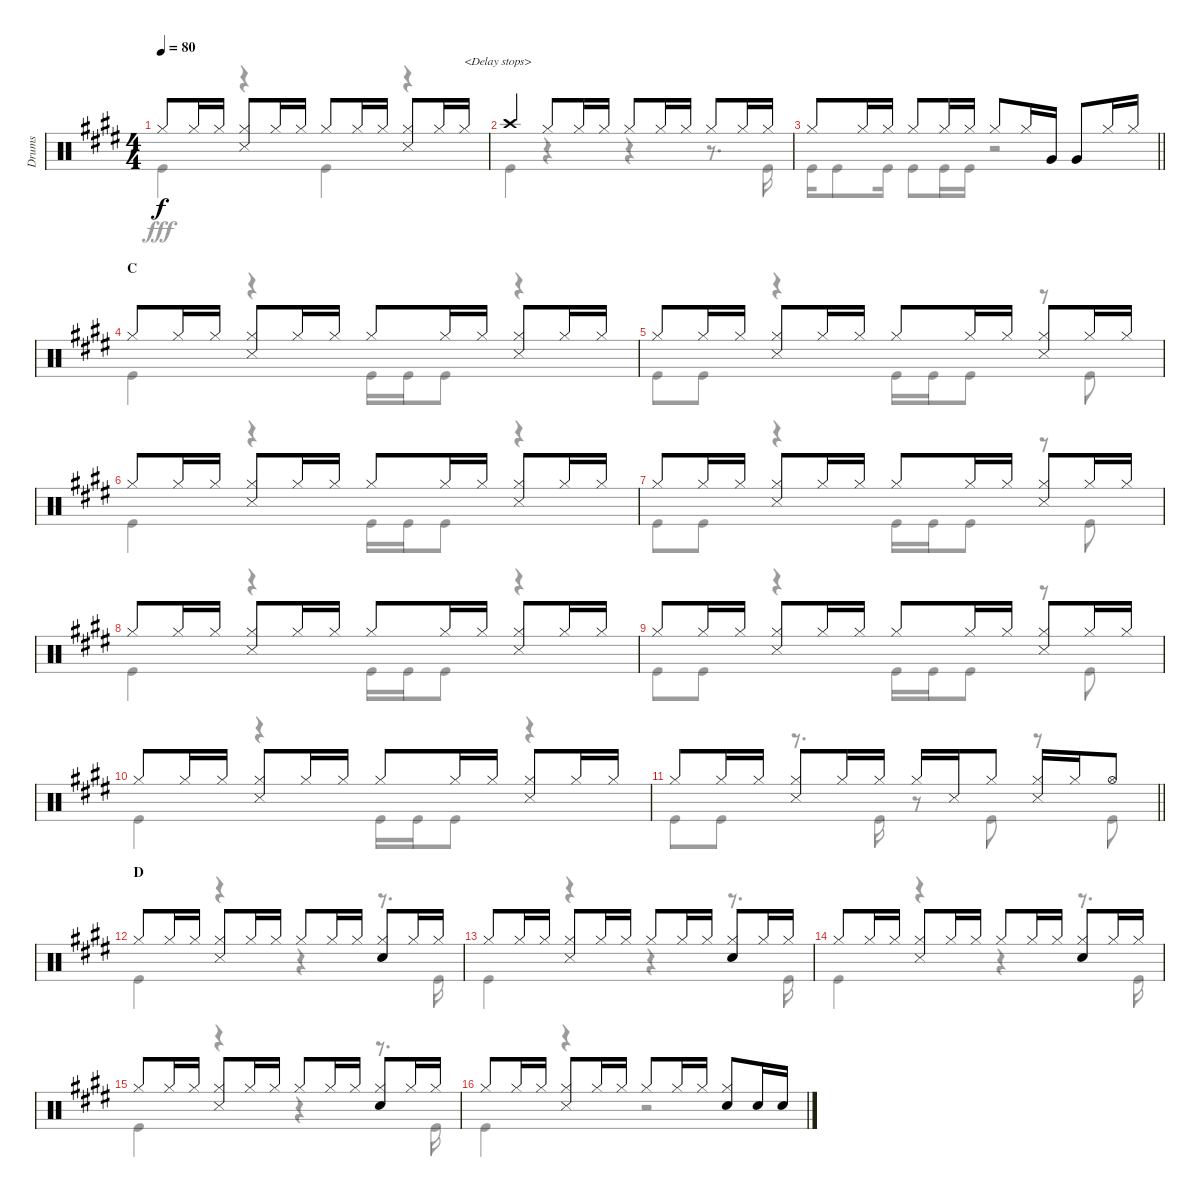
\track ("Drums" "Drums") {instrument percussion}
\staff {score}
\articulation defaults
\voice
\ts (4 4)
\tempo 80
\clef neutral
\ks e "Hi-Hat (closed)".8{dy f} "Hi-Hat (closed)".16 "Hi-Hat (closed)".16
("Hi-Hat (closed)" "Snare (side stick) 3").8 "Hi-Hat (closed)".16 "Hi-Hat (closed)".16 "Hi-Hat (closed)".8 "Hi-Hat (closed)".16 "Hi-Hat (closed)".16 ("Hi-Hat (closed)" "Snare (side stick) 3").8 "Hi-Hat (closed)".16 "Hi-Hat (closed)".16{txt "<Delay stops>"} |
"Crash high (hit)".4 "Hi-Hat (closed)".8 "Hi-Hat (closed)".16 "Hi-Hat (closed)".16 "Hi-Hat (closed)".8 "Hi-Hat (closed)".16 "Hi-Hat (closed)".16 "Hi-Hat (closed)".8 "Hi-Hat (closed)".16 "Hi-Hat (closed)".16 |
\barLineRight lightlight "Hi-Hat (closed)".8 "Hi-Hat (closed)".16 "Hi-Hat (closed)".16 "Hi-Hat (closed)".8 "Hi-Hat (closed)".16 "Hi-Hat (closed)".16 "Hi-Hat (closed)".8 "Hi-Hat (closed)".16 "Very Low Tom (hit)".16 "Very Low Tom (hit)".8 "Hi-Hat (closed)".16 "Hi-Hat (closed)".16
|
\section ("" "C")
"Hi-Hat (closed)".8 "Hi-Hat (closed)".16 "Hi-Hat (closed)".16 ("Hi-Hat (closed)" "Snare (side stick) 3").8 "Hi-Hat (closed)".16 "Hi-Hat (closed)".16 "Hi-Hat (closed)".8 "Hi-Hat (closed)".16 "Hi-Hat (closed)".16 ("Hi-Hat (closed)" "Snare (side stick) 3").8 "Hi-Hat (closed)".16 "Hi-Hat (closed)".16 |
"Hi-Hat (closed)".8 "Hi-Hat (closed)".16 "Hi-Hat (closed)".16 ("Hi-Hat (closed)" "Snare (side stick) 3").8 "Hi-Hat (closed)".16 "Hi-Hat (closed)".16 "Hi-Hat (closed)".8 "Hi-Hat (closed)".16 "Hi-Hat (closed)".16 ("Hi-Hat (closed)" "Snare (side stick) 3").8 "Hi-Hat (closed)".16 "Hi-Hat (closed)".16 |
"Hi-Hat (closed)".8 "Hi-Hat (closed)".16 "Hi-Hat (closed)".16 ("Hi-Hat (closed)" "Snare (side stick) 3").8 "Hi-Hat (closed)".16 "Hi-Hat (closed)".16 "Hi-Hat (closed)".8 "Hi-Hat (closed)".16 "Hi-Hat (closed)".16 ("Hi-Hat (closed)" "Snare (side stick) 3").8 "Hi-Hat (closed)".16 "Hi-Hat (closed)".16 |
"Hi-Hat (closed)".8 "Hi-Hat (closed)".16 "Hi-Hat (closed)".16 ("Hi-Hat (closed)" "Snare (side stick) 3").8 "Hi-Hat (closed)".16 "Hi-Hat (closed)".16 "Hi-Hat (closed)".8 "Hi-Hat (closed)".16 "Hi-Hat (closed)".16 ("Hi-Hat (closed)" "Snare (side stick) 3").8 "Hi-Hat (closed)".16 "Hi-Hat (closed)".16 |
"Hi-Hat (closed)".8 "Hi-Hat (closed)".16 "Hi-Hat (closed)".16 ("Hi-Hat (closed)" "Snare (side stick) 3").8 "Hi-Hat (closed)".16 "Hi-Hat (closed)".16 "Hi-Hat (closed)".8 "Hi-Hat (closed)".16 "Hi-Hat (closed)".16 ("Hi-Hat (closed)" "Snare (side stick) 3").8 "Hi-Hat (closed)".16 "Hi-Hat (closed)".16 |
"Hi-Hat (closed)".8 "Hi-Hat (closed)".16 "Hi-Hat (closed)".16 ("Hi-Hat (closed)" "Snare (side stick) 3").8 "Hi-Hat (closed)".16 "Hi-Hat (closed)".16 "Hi-Hat (closed)".8 "Hi-Hat (closed)".16 "Hi-Hat (closed)".16 ("Hi-Hat (closed)" "Snare (side stick) 3").8 "Hi-Hat (closed)".16 "Hi-Hat (closed)".16 |
"Hi-Hat (closed)".8 "Hi-Hat (closed)".16 "Hi-Hat (closed)".16 ("Hi-Hat (closed)" "Snare (side stick) 3").8 "Hi-Hat (closed)".16 "Hi-Hat (closed)".16 "Hi-Hat (closed)".8 "Hi-Hat (closed)".16 "Hi-Hat (closed)".16 ("Hi-Hat (closed)" "Snare (side stick) 3").8 "Hi-Hat (closed)".16 "Hi-Hat (closed)".16 |
\barLineRight lightlight "Hi-Hat (closed)".8 "Hi-Hat (closed)".16 "Hi-Hat (closed)".16
("Hi-Hat (closed)" "Snare (side stick) 3").8 "Hi-Hat (closed)".16 "Hi-Hat (closed)".16 "Hi-Hat (closed)".16 "Snare (side stick) 3".16 "Hi-Hat (closed)".8 ("Hi-Hat (closed)" "Snare (side stick) 3").16 "Hi-Hat (closed)".16 "Hi-Hat (open)".8 |
\section ("" "D")
"Hi-Hat (closed)".8 "Hi-Hat (closed)".16 "Hi-Hat (closed)".16 ("Hi-Hat (closed)" "Snare (side stick) 3").8 "Hi-Hat (closed)".16 "Hi-Hat (closed)".16 "Hi-Hat (closed)".8 "Hi-Hat (closed)".16 "Hi-Hat (closed)".16 ("Hi-Hat (closed)" "Snare (hit) 2").8 "Hi-Hat (closed)".16 "Hi-Hat (closed)".16 |
"Hi-Hat (closed)".8 "Hi-Hat (closed)".16 "Hi-Hat (closed)".16 ("Hi-Hat (closed)" "Snare (side stick) 3").8 "Hi-Hat (closed)".16 "Hi-Hat (closed)".16 "Hi-Hat (closed)".8 "Hi-Hat (closed)".16 "Hi-Hat (closed)".16 ("Hi-Hat (closed)" "Snare (hit) 2").8 "Hi-Hat (closed)".16 "Hi-Hat (closed)".16 |
"Hi-Hat (closed)".8 "Hi-Hat (closed)".16 "Hi-Hat (closed)".16 ("Hi-Hat (closed)" "Snare (side stick) 3").8 "Hi-Hat (closed)".16 "Hi-Hat (closed)".16 "Hi-Hat (closed)".8 "Hi-Hat (closed)".16 "Hi-Hat (closed)".16 ("Hi-Hat (closed)" "Snare (hit) 2").8 "Hi-Hat (closed)".16 "Hi-Hat (closed)".16 |
"Hi-Hat (closed)".8 "Hi-Hat (closed)".16 "Hi-Hat (closed)".16 ("Hi-Hat (closed)" "Snare (side stick) 3").8 "Hi-Hat (closed)".16 "Hi-Hat (closed)".16 "Hi-Hat (closed)".8 "Hi-Hat (closed)".16 "Hi-Hat (closed)".16 ("Hi-Hat (closed)" "Snare (hit) 2").8 "Hi-Hat (closed)".16 "Hi-Hat (closed)".16 |
"Hi-Hat (closed)".8 "Hi-Hat (closed)".16 "Hi-Hat (closed)".16 ("Hi-Hat (closed)" "Snare (side stick) 3").8 "Hi-Hat (closed)".16 "Hi-Hat (closed)".16 "Hi-Hat (closed)".8 "Hi-Hat (closed)".16 "Hi-Hat (closed)".16 ("Hi-Hat (closed)" "Snare (hit) 2").8 "Snare (hit) 2".16 "Snare (hit) 2".16
\voice
\clef neutral
\ottava regular
\simile none
\ks e "Kick (hit)".4{dy fff}
r.4 "Kick (hit)".4 r.4 |
"Kick (hit)".4 r.4 r.4 r.8{d} "Kick (hit)".16 |
\barLineRight lightlight "Kick (hit)".16 "Kick (hit)".8 "Kick (hit)".16 "Kick (hit)".8 "Kick (hit)".16 "Kick (hit)".16
r.2 |
"Kick (hit)".4 r.4 "Kick (hit)".16 "Kick (hit)".16 "Kick (hit)".8 r.4 |
"Kick (hit)".8 "Kick (hit)".8 r.4 "Kick (hit)".16 "Kick (hit)".16 "Kick (hit)".8 r.8 "Kick (hit)".8 |
"Kick (hit)".4 r.4 "Kick (hit)".16 "Kick (hit)".16 "Kick (hit)".8 r.4 |
"Kick (hit)".8 "Kick (hit)".8 r.4 "Kick (hit)".16 "Kick (hit)".16 "Kick (hit)".8 r.8 "Kick (hit)".8 |
"Kick (hit)".4 r.4 "Kick (hit)".16 "Kick (hit)".16 "Kick (hit)".8 r.4 |
"Kick (hit)".8 "Kick (hit)".8 r.4 "Kick (hit)".16 "Kick (hit)".16 "Kick (hit)".8 r.8 "Kick (hit)".8 |
"Kick (hit)".4 r.4 "Kick (hit)".16 "Kick (hit)".16 "Kick (hit)".8 r.4 |
\barLineRight lightlight "Kick (hit)".8 "Kick (hit)".8
r.8{d} "Kick (hit)".16 r.8 "Kick (hit)".8 r.8 "Kick (hit)".8 |
"Kick (hit)".4 r.4 r.4 r.8{d} "Kick (hit)".16 |
"Kick (hit)".4 r.4 r.4 r.8{d} "Kick (hit)".16 |
"Kick (hit)".4 r.4 r.4 r.8{d} "Kick (hit)".16 |
"Kick (hit)".4 r.4 r.4 r.8{d} "Kick (hit)".16 |
"Kick (hit)".4 r.4 r.2
